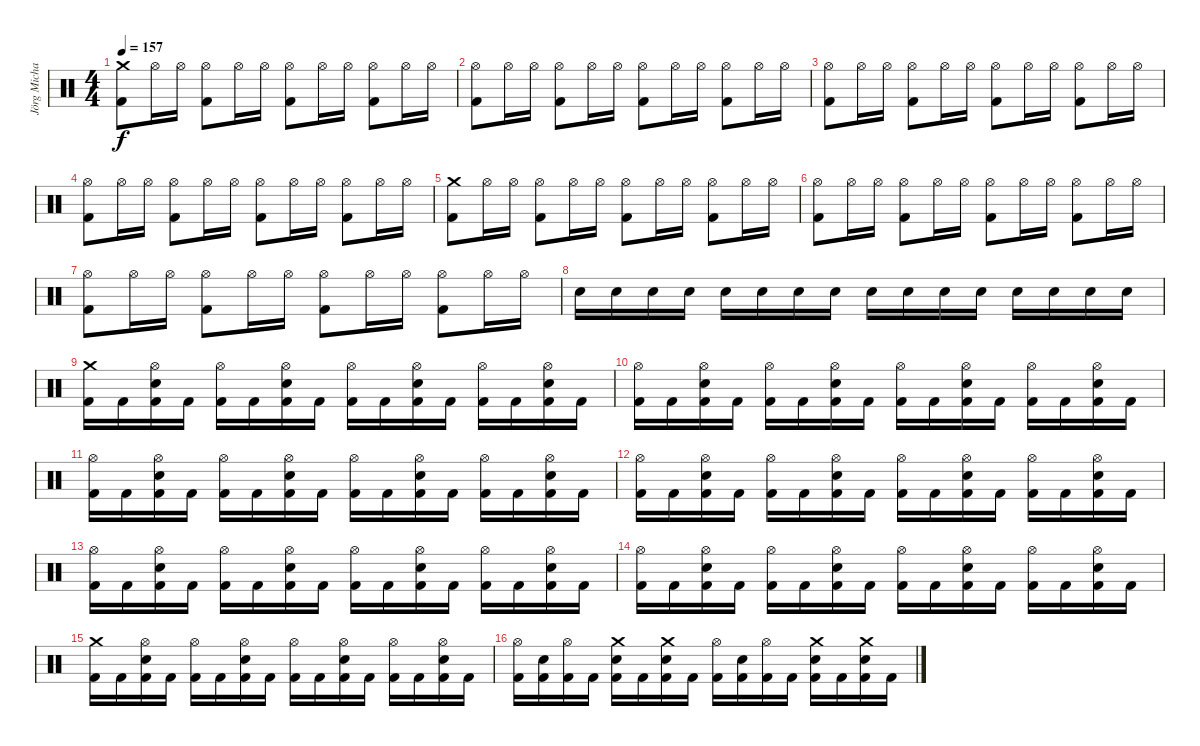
\track ("Jörg Michael" "Jörg Micha") {instrument percussion}
\staff {score}
\articulation defaults
\ts (4 4)
\tempo 157
\clef neutral
\ks c
("Crash medium (hit)" "Kick (hit) 2").8{dy f} "Hi-Hat (open)".16 "Hi-Hat (open)".16 ("Hi-Hat (open)" "Kick (hit) 2").8 "Hi-Hat (open)".16 "Hi-Hat (open)".16 ("Hi-Hat (open)" "Kick (hit) 2").8 "Hi-Hat (open)".16 "Hi-Hat (open)".16 ("Hi-Hat (open)" "Kick (hit) 2").8 "Hi-Hat (open)".16 "Hi-Hat (open)".16 |
("Hi-Hat (open)" "Kick (hit) 2").8 "Hi-Hat (open)".16 "Hi-Hat (open)".16 ("Hi-Hat (open)" "Kick (hit) 2").8 "Hi-Hat (open)".16 "Hi-Hat (open)".16 ("Hi-Hat (open)" "Kick (hit) 2").8 "Hi-Hat (open)".16 "Hi-Hat (open)".16 ("Hi-Hat (open)" "Kick (hit) 2").8 "Hi-Hat (open)".16 "Hi-Hat (open)".16 |
("Hi-Hat (open)" "Kick (hit) 2").8 "Hi-Hat (open)".16 "Hi-Hat (open)".16 ("Hi-Hat (open)" "Kick (hit) 2").8 "Hi-Hat (open)".16 "Hi-Hat (open)".16 ("Hi-Hat (open)" "Kick (hit) 2").8 "Hi-Hat (open)".16 "Hi-Hat (open)".16 ("Hi-Hat (open)" "Kick (hit) 2").8 "Hi-Hat (open)".16 "Hi-Hat (open)".16 |
("Hi-Hat (open)" "Kick (hit) 2").8 "Hi-Hat (open)".16 "Hi-Hat (open)".16 ("Hi-Hat (open)" "Kick (hit) 2").8 "Hi-Hat (open)".16 "Hi-Hat (open)".16 ("Hi-Hat (open)" "Kick (hit) 2").8 "Hi-Hat (open)".16 "Hi-Hat (open)".16 ("Hi-Hat (open)" "Kick (hit) 2").8 "Hi-Hat (open)".16 "Hi-Hat (open)".16 |
("Crash medium (hit)" "Kick (hit) 2").8 "Hi-Hat (open)".16 "Hi-Hat (open)".16 ("Hi-Hat (open)" "Kick (hit) 2").8 "Hi-Hat (open)".16 "Hi-Hat (open)".16 ("Hi-Hat (open)" "Kick (hit) 2").8 "Hi-Hat (open)".16 "Hi-Hat (open)".16 ("Hi-Hat (open)" "Kick (hit) 2").8 "Hi-Hat (open)".16 "Hi-Hat (open)".16 |
("Hi-Hat (open)" "Kick (hit) 2").8 "Hi-Hat (open)".16 "Hi-Hat (open)".16 ("Hi-Hat (open)" "Kick (hit) 2").8 "Hi-Hat (open)".16 "Hi-Hat (open)".16 ("Hi-Hat (open)" "Kick (hit) 2").8 "Hi-Hat (open)".16 "Hi-Hat (open)".16 ("Hi-Hat (open)" "Kick (hit) 2").8 "Hi-Hat (open)".16 "Hi-Hat (open)".16 |
("Hi-Hat (open)" "Kick (hit) 2").8 "Hi-Hat (open)".16 "Hi-Hat (open)".16 ("Hi-Hat (open)" "Kick (hit) 2").8 "Hi-Hat (open)".16 "Hi-Hat (open)".16 ("Hi-Hat (open)" "Kick (hit) 2").8 "Hi-Hat (open)".16 "Hi-Hat (open)".16 ("Hi-Hat (open)" "Kick (hit) 2").8 "Hi-Hat (open)".16 "Hi-Hat (open)".16 |
"Snare (hit) 2".16 "Snare (hit) 2".16 "Snare (hit) 2".16 "Snare (hit) 2".16 "Snare (hit) 2".16 "Snare (hit) 2".16 "Snare (hit) 2".16 "Snare (hit) 2".16 "Snare (hit) 2".16 "Snare (hit) 2".16 "Snare (hit) 2".16 "Snare (hit) 2".16 "Snare (hit) 2".16 "Snare (hit) 2".16 "Snare (hit) 2".16 "Snare (hit) 2".16 |
("Crash medium (hit)" "Kick (hit) 2").16 "Kick (hit) 2".16 ("Snare (hit) 2" "Hi-Hat (open)" "Kick (hit) 2").16 "Kick (hit) 2".16 ("Hi-Hat (open)" "Kick (hit) 2").16 "Kick (hit) 2".16 ("Snare (hit) 2" "Hi-Hat (open)" "Kick (hit) 2").16 "Kick (hit) 2".16 ("Hi-Hat (open)" "Kick (hit) 2").16 "Kick (hit) 2".16 ("Snare (hit) 2" "Hi-Hat (open)" "Kick (hit) 2").16 "Kick (hit) 2".16 ("Hi-Hat (open)" "Kick (hit) 2").16 "Kick (hit) 2".16 ("Snare (hit) 2" "Hi-Hat (open)" "Kick (hit) 2").16 "Kick (hit) 2".16 |
("Hi-Hat (open)" "Kick (hit) 2").16 "Kick (hit) 2".16 ("Snare (hit) 2" "Hi-Hat (open)" "Kick (hit) 2").16 "Kick (hit) 2".16 ("Hi-Hat (open)" "Kick (hit) 2").16 "Kick (hit) 2".16 ("Snare (hit) 2" "Hi-Hat (open)" "Kick (hit) 2").16 "Kick (hit) 2".16 ("Hi-Hat (open)" "Kick (hit) 2").16 "Kick (hit) 2".16 ("Snare (hit) 2" "Hi-Hat (open)" "Kick (hit) 2").16 "Kick (hit) 2".16 ("Hi-Hat (open)" "Kick (hit) 2").16 "Kick (hit) 2".16 ("Snare (hit) 2" "Hi-Hat (open)" "Kick (hit) 2").16 "Kick (hit) 2".16 |
("Hi-Hat (open)" "Kick (hit) 2").16 "Kick (hit) 2".16 ("Snare (hit) 2" "Hi-Hat (open)" "Kick (hit) 2").16 "Kick (hit) 2".16 ("Hi-Hat (open)" "Kick (hit) 2").16 "Kick (hit) 2".16 ("Snare (hit) 2" "Hi-Hat (open)" "Kick (hit) 2").16 "Kick (hit) 2".16 ("Hi-Hat (open)" "Kick (hit) 2").16 "Kick (hit) 2".16 ("Snare (hit) 2" "Hi-Hat (open)" "Kick (hit) 2").16 "Kick (hit) 2".16 ("Hi-Hat (open)" "Kick (hit) 2").16 "Kick (hit) 2".16 ("Snare (hit) 2" "Hi-Hat (open)" "Kick (hit) 2").16 "Kick (hit) 2".16 |
("Hi-Hat (open)" "Kick (hit) 2").16 "Kick (hit) 2".16 ("Snare (hit) 2" "Hi-Hat (open)" "Kick (hit) 2").16 "Kick (hit) 2".16 ("Hi-Hat (open)" "Kick (hit) 2").16 "Kick (hit) 2".16 ("Snare (hit) 2" "Hi-Hat (open)" "Kick (hit) 2").16 "Kick (hit) 2".16 ("Hi-Hat (open)" "Kick (hit) 2").16 "Kick (hit) 2".16 ("Snare (hit) 2" "Hi-Hat (open)" "Kick (hit) 2").16 "Kick (hit) 2".16 ("Hi-Hat (open)" "Kick (hit) 2").16 "Kick (hit) 2".16 ("Snare (hit) 2" "Hi-Hat (open)" "Kick (hit) 2").16 "Kick (hit) 2".16 |
("Hi-Hat (open)" "Kick (hit) 2").16 "Kick (hit) 2".16 ("Snare (hit) 2" "Hi-Hat (open)" "Kick (hit) 2").16 "Kick (hit) 2".16 ("Hi-Hat (open)" "Kick (hit) 2").16 "Kick (hit) 2".16 ("Snare (hit) 2" "Hi-Hat (open)" "Kick (hit) 2").16 "Kick (hit) 2".16 ("Hi-Hat (open)" "Kick (hit) 2").16 "Kick (hit) 2".16 ("Snare (hit) 2" "Hi-Hat (open)" "Kick (hit) 2").16 "Kick (hit) 2".16 ("Hi-Hat (open)" "Kick (hit) 2").16 "Kick (hit) 2".16 ("Snare (hit) 2" "Hi-Hat (open)" "Kick (hit) 2").16 "Kick (hit) 2".16 |
("Hi-Hat (open)" "Kick (hit) 2").16 "Kick (hit) 2".16 ("Snare (hit) 2" "Hi-Hat (open)" "Kick (hit) 2").16 "Kick (hit) 2".16 ("Hi-Hat (open)" "Kick (hit) 2").16 "Kick (hit) 2".16 ("Snare (hit) 2" "Hi-Hat (open)" "Kick (hit) 2").16 "Kick (hit) 2".16 ("Hi-Hat (open)" "Kick (hit) 2").16 "Kick (hit) 2".16 ("Snare (hit) 2" "Hi-Hat (open)" "Kick (hit) 2").16 "Kick (hit) 2".16 ("Hi-Hat (open)" "Kick (hit) 2").16 "Kick (hit) 2".16 ("Snare (hit) 2" "Hi-Hat (open)" "Kick (hit) 2").16 "Kick (hit) 2".16 |
("Crash medium (hit)" "Kick (hit) 2").16 "Kick (hit) 2".16 ("Snare (hit) 2" "Hi-Hat (open)" "Kick (hit) 2").16 "Kick (hit) 2".16 ("Hi-Hat (open)" "Kick (hit) 2").16 "Kick (hit) 2".16 ("Snare (hit) 2" "Hi-Hat (open)" "Kick (hit) 2").16 "Kick (hit) 2".16 ("Hi-Hat (open)" "Kick (hit) 2").16 "Kick (hit) 2".16 ("Snare (hit) 2" "Hi-Hat (open)" "Kick (hit) 2").16 "Kick (hit) 2".16 ("Hi-Hat (open)" "Kick (hit) 2").16 "Kick (hit) 2".16 ("Snare (hit) 2" "Hi-Hat (open)" "Kick (hit) 2").16 "Kick (hit) 2".16 |
("Hi-Hat (open)" "Kick (hit) 2").16 ("Snare (hit) 2" "Kick (hit) 2").16 ("Hi-Hat (open)" "Kick (hit) 2").16 "Kick (hit) 2".16 ("Crash medium (hit)" "Snare (hit) 2" "Kick (hit) 2").16 "Kick (hit) 2".16 ("Crash medium (hit)" "Snare (hit) 2" "Kick (hit) 2").16 "Kick (hit) 2".16 ("Hi-Hat (open)" "Kick (hit) 2").16 ("Snare (hit) 2" "Kick (hit) 2").16 ("Hi-Hat (open)" "Kick (hit) 2").16 "Kick (hit) 2".16 ("Crash medium (hit)" "Snare (hit) 2" "Kick (hit) 2").16 "Kick (hit) 2".16 ("Crash medium (hit)" "Snare (hit) 2" "Kick (hit) 2").16 "Kick (hit) 2".16
